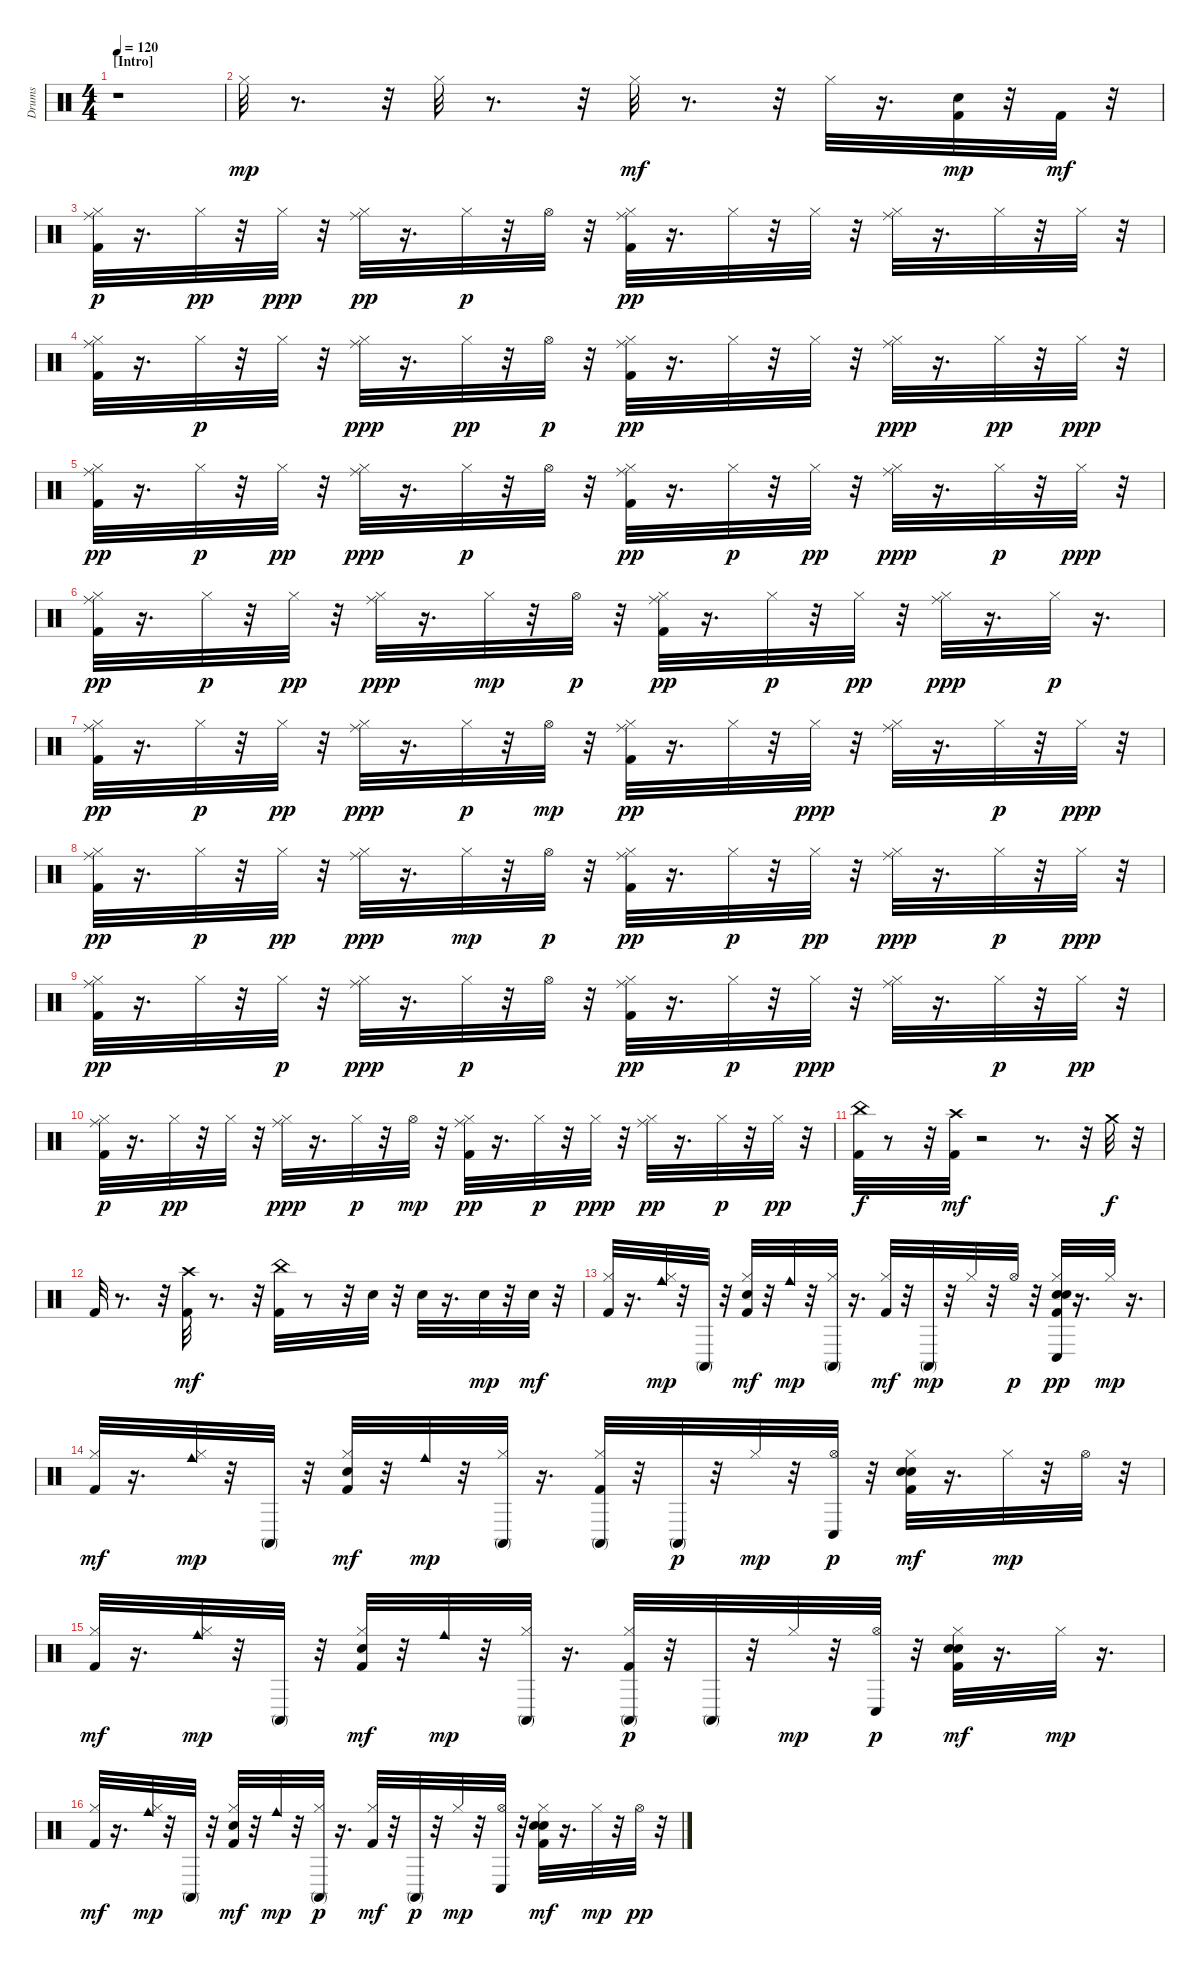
\track ("Drums" "Drums") {instrument percussion}
\staff {score}
\articulation defaults
\ts (4 4)
\section ("" "[Intro]")
\tempo 120
\clef neutral
\ks c
r.1{dy mp} |
"Hi-Hat (closed)".32 r.8{d} r.32 "Hi-Hat (closed)".32 r.8{d} r.32 "Hi-Hat (closed)".32{dy mf} r.8{d} r.32 "Hi-Hat (closed)".32 r.16{d} ("Kick (hit) 2" "Electric Snare (hit)").32{dy mp} r.32 "Kick (hit) 2".32{dy mf} r.32 |
("Kick (hit) 2" "Hi-Hat (closed)" "Ride (middle)").32{dy p} r.16{d} "Hi-Hat (closed)".32{dy pp} r.32 "Hi-Hat (closed)".32{dy ppp} r.32 ("Hi-Hat (closed)" "Ride (middle)").32{dy pp} r.16{d} "Hi-Hat (closed)".32{dy p} r.32 "Hi-Hat (open)".32 r.32 ("Kick (hit) 2" "Hi-Hat (closed)" "Ride (middle)").32{dy pp} r.16{d} "Hi-Hat (closed)".32 r.32 "Hi-Hat (closed)".32 r.32 ("Hi-Hat (closed)" "Ride (middle)").32 r.16{d} "Hi-Hat (closed)".32 r.32 "Hi-Hat (closed)".32 r.32 |
("Kick (hit) 2" "Hi-Hat (closed)" "Ride (middle)").32 r.16{d} "Hi-Hat (closed)".32{dy p} r.32 "Hi-Hat (closed)".32 r.32 ("Hi-Hat (closed)" "Ride (middle)").32{dy ppp} r.16{d} "Hi-Hat (closed)".32{dy pp} r.32 "Hi-Hat (open)".32{dy p} r.32 ("Kick (hit) 2" "Hi-Hat (closed)" "Ride (middle)").32{dy pp} r.16{d} "Hi-Hat (closed)".32 r.32 "Hi-Hat (closed)".32 r.32 ("Hi-Hat (closed)" "Ride (middle)").32{dy ppp} r.16{d} "Hi-Hat (closed)".32{dy pp} r.32 "Hi-Hat (closed)".32{dy ppp} r.32 |
("Kick (hit) 2" "Hi-Hat (closed)" "Ride (middle)").32{dy pp} r.16{d} "Hi-Hat (closed)".32{dy p} r.32 "Hi-Hat (closed)".32{dy pp} r.32 ("Hi-Hat (closed)" "Ride (middle)").32{dy ppp} r.16{d} "Hi-Hat (closed)".32{dy p} r.32 "Hi-Hat (open)".32 r.32 ("Kick (hit) 2" "Hi-Hat (closed)" "Ride (middle)").32{dy pp} r.16{d} "Hi-Hat (closed)".32{dy p} r.32 "Hi-Hat (closed)".32{dy pp} r.32 ("Hi-Hat (closed)" "Ride (middle)").32{dy ppp} r.16{d} "Hi-Hat (closed)".32{dy p} r.32 "Hi-Hat (closed)".32{dy ppp} r.32 |
("Kick (hit) 2" "Hi-Hat (closed)" "Ride (middle)").32{dy pp} r.16{d} "Hi-Hat (closed)".32{dy p} r.32 "Hi-Hat (closed)".32{dy pp} r.32 ("Hi-Hat (closed)" "Ride (middle)").32{dy ppp} r.16{d} "Hi-Hat (closed)".32{dy mp} r.32 "Hi-Hat (open)".32{dy p} r.32 ("Kick (hit) 2" "Hi-Hat (closed)" "Ride (middle)").32{dy pp} r.16{d} "Hi-Hat (closed)".32{dy p} r.32 "Hi-Hat (closed)".32{dy pp} r.32 ("Hi-Hat (closed)" "Ride (middle)").32{dy ppp} r.16{d} "Hi-Hat (closed)".32{dy p} r.16{d} |
("Kick (hit) 2" "Hi-Hat (closed)" "Ride (middle)").32{dy pp} r.16{d} "Hi-Hat (closed)".32{dy p} r.32 "Hi-Hat (closed)".32{dy pp} r.32 ("Hi-Hat (closed)" "Ride (middle)").32{dy ppp} r.16{d} "Hi-Hat (closed)".32{dy p} r.32 "Hi-Hat (open)".32{dy mp} r.32 ("Kick (hit) 2" "Hi-Hat (closed)" "Ride (middle)").32{dy pp} r.16{d} "Hi-Hat (closed)".32 r.32 "Hi-Hat (closed)".32{dy ppp} r.32 ("Hi-Hat (closed)" "Ride (middle)").32 r.16{d} "Hi-Hat (closed)".32{dy p} r.32 "Hi-Hat (closed)".32{dy ppp} r.32 |
("Kick (hit) 2" "Hi-Hat (closed)" "Ride (middle)").32{dy pp} r.16{d} "Hi-Hat (closed)".32{dy p} r.32 "Hi-Hat (closed)".32{dy pp} r.32 ("Hi-Hat (closed)" "Ride (middle)").32{dy ppp} r.16{d} "Hi-Hat (closed)".32{dy mp} r.32 "Hi-Hat (open)".32{dy p} r.32 ("Kick (hit) 2" "Hi-Hat (closed)" "Ride (middle)").32{dy pp} r.16{d} "Hi-Hat (closed)".32{dy p} r.32 "Hi-Hat (closed)".32{dy pp} r.32 ("Hi-Hat (closed)" "Ride (middle)").32{dy ppp} r.16{d} "Hi-Hat (closed)".32{dy p} r.32 "Hi-Hat (closed)".32{dy ppp} r.32 |
("Kick (hit) 2" "Hi-Hat (closed)" "Ride (middle)").32{dy pp} r.16{d} "Hi-Hat (closed)".32 r.32 "Hi-Hat (closed)".32{dy p} r.32 ("Hi-Hat (closed)" "Ride (middle)").32{dy ppp} r.16{d} "Hi-Hat (closed)".32{dy p} r.32 "Hi-Hat (open)".32 r.32 ("Kick (hit) 2" "Hi-Hat (closed)" "Ride (middle)").32{dy pp} r.16{d} "Hi-Hat (closed)".32{dy p} r.32 "Hi-Hat (closed)".32{dy ppp} r.32 ("Hi-Hat (closed)" "Ride (middle)").32 r.16{d} "Hi-Hat (closed)".32{dy p} r.32 "Hi-Hat (closed)".32{dy pp} r.32 |
("Kick (hit) 2" "Hi-Hat (closed)" "Ride (middle)").32{dy p} r.16{d} "Hi-Hat (closed)".32{dy pp} r.32 "Hi-Hat (closed)".32 r.32 ("Hi-Hat (closed)" "Ride (middle)").32{dy ppp} r.16{d} "Hi-Hat (closed)".32{dy p} r.32 "Hi-Hat (open)".32{dy mp} r.32 ("Kick (hit) 2" "Hi-Hat (closed)" "Ride (middle)").32{dy pp} r.16{d} "Hi-Hat (closed)".32{dy p} r.32 "Hi-Hat (closed)".32{dy ppp} r.32 ("Hi-Hat (closed)" "Ride (middle)").32{dy pp} r.16{d} "Hi-Hat (closed)".32{dy p} r.32 "Hi-Hat (closed)".32{dy pp} r.32 |
("Kick (hit) 2" "China (hit)").32{dy f} r.8 r.32 ("Crash high (hit)" "Kick (hit) 2").32{dy mf} r.2 r.8{d} r.32 "Crash medium (hit)".32{dy f} r.32 |
"Kick (hit) 2".32 r.8{d} r.32 ("Kick (hit) 2" "Crash high (hit)").32{dy mf} r.8{d} r.32 ("Kick (hit) 2" "China (hit)").32 r.8 r.32 "Electric Snare (hit)".32 r.32 "Electric Snare (hit)".32 r.16{d} "Electric Snare (hit)".32{dy mp} r.32 "Electric Snare (hit)".32{dy mf} r.32 |
("Hi-Hat (closed)" "Kick (hit) 2").32 r.16{d} ("Cowbell medium (hit)" "Hi-Hat (closed)").32{dy mp} r.32 "Conga high (mute)".32 r.32 ("Hi-Hat (closed)" "Electric Snare (hit)" "Kick (hit) 2").32{dy mf} r.32 "Cowbell medium (hit)".32{dy mp} r.32 ("Hi-Hat (closed)" "Conga high (mute)").32 r.16{d} ("Hi-Hat (closed)" "Kick (hit) 2").32{dy mf} r.32 "Conga high (mute)".32{dy mp} r.32 "Hi-Hat (closed)".32 r.32 "Hi-Hat (open)".32{dy p} r.32 ("Hi-Hat (closed)" "Kick (hit) 2" "Hand Clap (hit)" "Electric Snare (hit)" "Conga low (hit)").32{dy pp} r.16{d} "Hi-Hat (closed)".32{dy mp} r.16{d} |
("Hi-Hat (closed)" "Kick (hit) 2").32{dy mf} r.16{d} ("Hi-Hat (closed)" "Cowbell medium (hit)").32{dy mp} r.32 "Conga high (mute)".32 r.32 ("Hi-Hat (closed)" "Electric Snare (hit)" "Kick (hit) 2").32{dy mf} r.32 "Cowbell medium (hit)".32{dy mp} r.32 ("Hi-Hat (closed)" "Conga high (mute)").32 r.16{d} ("Hi-Hat (closed)" "Kick (hit) 2" "Conga high (mute)").32 r.32 "Conga high (mute)".32{dy p} r.32 "Hi-Hat (closed)".32{dy mp} r.32 ("Hi-Hat (open)" "Conga low (hit)").32{dy p} r.32 ("Kick (hit) 2" "Hi-Hat (closed)" "Electric Snare (hit)" "Hand Clap (hit)").32{dy mf} r.16{d} "Hi-Hat (closed)".32{dy mp} r.32 "Hi-Hat (open)".32 r.32 |
("Hi-Hat (closed)" "Kick (hit) 2").32{dy mf} r.16{d} ("Hi-Hat (closed)" "Cowbell medium (hit)").32{dy mp} r.32 "Conga high (mute)".32 r.32 ("Hi-Hat (closed)" "Electric Snare (hit)" "Kick (hit) 2").32{dy mf} r.32 "Cowbell medium (hit)".32{dy mp} r.32 ("Hi-Hat (closed)" "Conga high (mute)").32 r.16{d} ("Kick (hit) 2" "Hi-Hat (closed)" "Conga high (mute)").32{dy p} r.32 "Conga high (mute)".32 r.32 "Hi-Hat (closed)".32{dy mp} r.32 ("Hi-Hat (open)" "Conga low (hit)").32{dy p} r.32 ("Hi-Hat (closed)" "Hand Clap (hit)" "Electric Snare (hit)" "Kick (hit) 2").32{dy mf} r.16{d} "Hi-Hat (closed)".32{dy mp} r.16{d} |
("Hi-Hat (closed)" "Kick (hit) 2").32{dy mf} r.16{d} ("Hi-Hat (closed)" "Cowbell medium (hit)").32{dy mp} r.32 "Conga high (mute)".32 r.32 ("Hi-Hat (closed)" "Electric Snare (hit)" "Kick (hit) 2").32{dy mf} r.32 "Cowbell medium (hit)".32{dy mp} r.32 ("Hi-Hat (closed)" "Conga high (mute)").32{dy p} r.16{d} ("Hi-Hat (closed)" "Kick (hit) 2").32{dy mf} r.32 "Conga high (mute)".32{dy p} r.32 "Hi-Hat (closed)".32{dy mp} r.32 ("Hi-Hat (open)" "Conga low (hit)").32 r.32 ("Kick (hit) 2" "Hi-Hat (closed)" "Electric Snare (hit)" "Hand Clap (hit)").32{dy mf} r.16{d} "Hi-Hat (closed)".32{dy mp} r.32 "Hi-Hat (open)".32{dy pp} r.32
